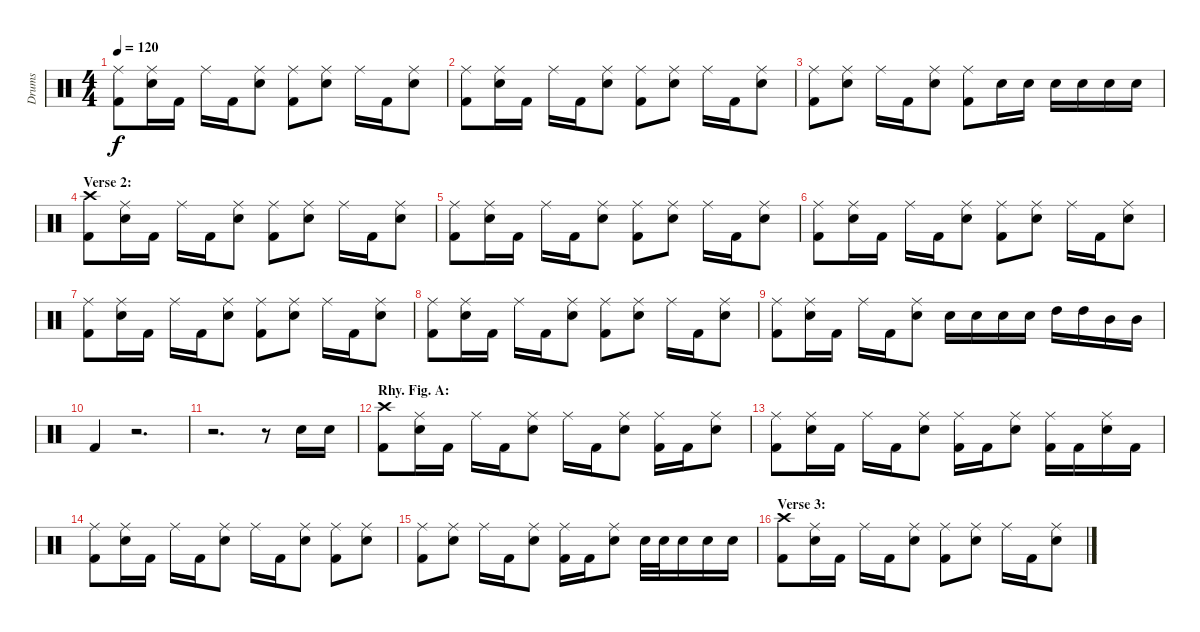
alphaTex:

\track ("Drums" "Drums") {instrument percussion}
\staff {score}
\articulation defaults
\ts (4 4)
\tempo 120
\clef neutral
\ks c
("Ride (middle)" "Kick (hit) 2").8{dy f} ("Ride (middle)" "Electric Snare (hit)").16 "Kick (hit) 2".16 "Ride (middle)".16 "Kick (hit) 2".16 ("Ride (middle)" "Electric Snare (hit)").8 ("Ride (middle)" "Kick (hit) 2").8 ("Ride (middle)" "Electric Snare (hit)").8 "Ride (middle)".16 "Kick (hit) 2".16 ("Ride (middle)" "Electric Snare (hit)").8 |
("Ride (middle)" "Kick (hit) 2").8 ("Ride (middle)" "Electric Snare (hit)").16 "Kick (hit) 2".16 "Ride (middle)".16 "Kick (hit) 2".16 ("Ride (middle)" "Electric Snare (hit)").8 ("Ride (middle)" "Kick (hit) 2").8 ("Ride (middle)" "Electric Snare (hit)").8 "Ride (middle)".16 "Kick (hit) 2".16 ("Ride (middle)" "Electric Snare (hit)").8 |
("Ride (middle)" "Kick (hit) 2").8 ("Ride (middle)" "Electric Snare (hit)").8 "Ride (middle)".16 "Kick (hit) 2".16 ("Ride (middle)" "Electric Snare (hit)").8 ("Ride (middle)" "Kick (hit) 2").8 "Electric Snare (hit)".16 "Electric Snare (hit)".16 "Electric Snare (hit)".16 "Electric Snare (hit)".16 "Electric Snare (hit)".16 "Electric Snare (hit)".16 |
\section ("" "Verse 2:")
("Crash high (hit)" "Kick (hit) 2").8 ("Ride (middle)" "Electric Snare (hit)").16 "Kick (hit) 2".16 "Ride (middle)".16 "Kick (hit) 2".16 ("Ride (middle)" "Electric Snare (hit)").8 ("Ride (middle)" "Kick (hit) 2").8 ("Ride (middle)" "Electric Snare (hit)").8 "Ride (middle)".16 "Kick (hit) 2".16 ("Ride (middle)" "Electric Snare (hit)").8 |
("Ride (middle)" "Kick (hit) 2").8 ("Ride (middle)" "Electric Snare (hit)").16 "Kick (hit) 2".16 "Ride (middle)".16 "Kick (hit) 2".16 ("Ride (middle)" "Electric Snare (hit)").8 ("Ride (middle)" "Kick (hit) 2").8 ("Ride (middle)" "Electric Snare (hit)").8 "Ride (middle)".16 "Kick (hit) 2".16 ("Ride (middle)" "Electric Snare (hit)").8 |
("Ride (middle)" "Kick (hit) 2").8 ("Ride (middle)" "Electric Snare (hit)").16 "Kick (hit) 2".16 "Ride (middle)".16 "Kick (hit) 2".16 ("Ride (middle)" "Electric Snare (hit)").8 ("Ride (middle)" "Kick (hit) 2").8 ("Ride (middle)" "Electric Snare (hit)").8 "Ride (middle)".16 "Kick (hit) 2".16 ("Ride (middle)" "Electric Snare (hit)").8 |
("Ride (middle)" "Kick (hit) 2").8 ("Ride (middle)" "Electric Snare (hit)").16 "Kick (hit) 2".16 "Ride (middle)".16 "Kick (hit) 2".16 ("Ride (middle)" "Electric Snare (hit)").8 ("Ride (middle)" "Kick (hit) 2").8 ("Ride (middle)" "Electric Snare (hit)").8 "Ride (middle)".16 "Kick (hit) 2".16 ("Ride (middle)" "Electric Snare (hit)").8 |
("Ride (middle)" "Kick (hit) 2").8 ("Ride (middle)" "Electric Snare (hit)").16 "Kick (hit) 2".16 "Ride (middle)".16 "Kick (hit) 2".16 ("Ride (middle)" "Electric Snare (hit)").8 ("Ride (middle)" "Kick (hit) 2").8 ("Ride (middle)" "Electric Snare (hit)").8 "Ride (middle)".16 "Kick (hit) 2".16 ("Ride (middle)" "Electric Snare (hit)").8 |
("Ride (middle)" "Kick (hit) 2").8 ("Ride (middle)" "Electric Snare (hit)").16 "Kick (hit) 2".16 "Ride (middle)".16 "Kick (hit) 2".16 ("Ride (middle)" "Electric Snare (hit)").8 "Electric Snare (hit)".16 "Electric Snare (hit)".16 "Electric Snare (hit)".16 "Electric Snare (hit)".16 "High Tom (hit)".16 "High Tom (hit)".16 "Mid Tom (hit)".16 "Mid Tom (hit)".16 |
"Kick (hit) 2".4 r.2{d} |
r.2{d} r.8 "Electric Snare (hit)".16 "Electric Snare (hit)".16 |
\section ("" "Rhy. Fig. A:")
("Crash high (hit)" "Kick (hit) 2").8 ("Ride (middle)" "Electric Snare (hit)").16 "Kick (hit) 2".16 "Ride (middle)".16 "Kick (hit) 2".16 ("Ride (middle)" "Electric Snare (hit)").8 "Ride (middle)".16 "Kick (hit) 2".16 ("Ride (middle)" "Electric Snare (hit)").8 ("Ride (middle)" "Kick (hit) 2").16 "Kick (hit) 2".16 ("Ride (middle)" "Electric Snare (hit)").8 |
("Ride (middle)" "Kick (hit) 2").8 ("Ride (middle)" "Electric Snare (hit)").16 "Kick (hit) 2".16 "Ride (middle)".16 "Kick (hit) 2".16 ("Ride (middle)" "Electric Snare (hit)").8 ("Ride (middle)" "Kick (hit) 2").16 "Kick (hit) 2".16 ("Ride (middle)" "Electric Snare (hit)").8 ("Ride (middle)" "Kick (hit) 2").16 "Kick (hit) 2".16 ("Ride (middle)" "Electric Snare (hit)").16 "Kick (hit) 2".16 |
("Ride (middle)" "Kick (hit) 2").8 ("Ride (middle)" "Electric Snare (hit)").16 "Kick (hit) 2".16 "Ride (middle)".16 "Kick (hit) 2".16 ("Ride (middle)" "Electric Snare (hit)").8 "Ride (middle)".16 "Kick (hit) 2".16 ("Ride (middle)" "Electric Snare (hit)").8 ("Ride (middle)" "Kick (hit) 2").8 ("Ride (middle)" "Electric Snare (hit)").8 |
("Ride (middle)" "Kick (hit) 2").8 ("Ride (middle)" "Electric Snare (hit)").8 "Ride (middle)".16 "Kick (hit) 2".16 ("Ride (middle)" "Electric Snare (hit)").8 ("Ride (middle)" "Kick (hit) 2").16 "Kick (hit) 2".16 ("Ride (middle)" "Electric Snare (hit)").8 "Electric Snare (hit)".32 "Electric Snare (hit)".32 "Electric Snare (hit)".16 "Electric Snare (hit)".16 "Electric Snare (hit)".16 |
\section ("" "Verse 3:")
("Crash high (hit)" "Kick (hit) 2").8 ("Ride (middle)" "Electric Snare (hit)").16 "Kick (hit) 2".16 "Ride (middle)".16 "Kick (hit) 2".16 ("Ride (middle)" "Electric Snare (hit)").8 ("Ride (middle)" "Kick (hit) 2").8 ("Ride (middle)" "Electric Snare (hit)").8 "Ride (middle)".16 "Kick (hit) 2".16 ("Ride (middle)" "Electric Snare (hit)").8
